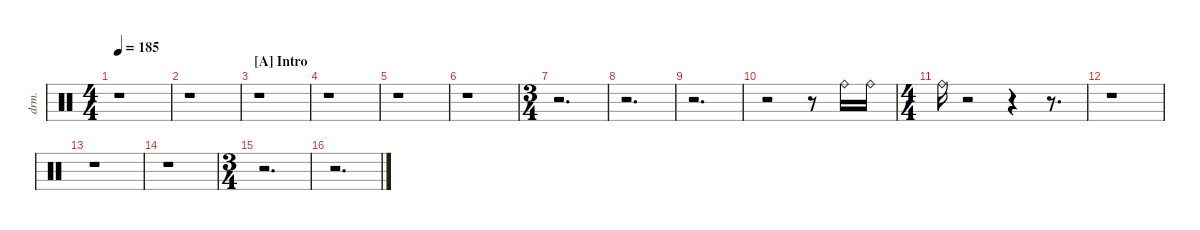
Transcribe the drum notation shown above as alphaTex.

\defaultSystemsLayout 4
\hideDynamics
\bracketExtendMode nobrackets
\otherSystemsTrackNameOrientation horizontal
\track ("drums" "drm.") {instrument percussion}
\staff {score}
\articulation defaults
\ts (4 4)
\tempo 185
\clef neutral
\ks aminor
r.1{dy f beam Down} |
r.1{beam Down} |
\section ("A" "Intro")
r.1{beam Down} |
r.1{beam Down} |
r.1{beam Down} |
r.1{beam Down} |
\ts (3 4)
r.2{d beam Down} |
r.2{d beam Down} |
r.2{d beam Down} |
r.2{beam Down} r.8{beam Down} "Ride (bell)".16{beam Down} "Ride (bell)".16{dy mp beam Down} |
\ts (4 4)
"Ride (bell)".16{dy fff beam Down} r.2{beam Down} r.4{beam Down} r.8{d beam Down} |
r.1{beam Down} |
r.1{beam Down} |
r.1{beam Down} |
\ts (3 4)
r.2{d beam Down} |
r.2{d beam Down}
